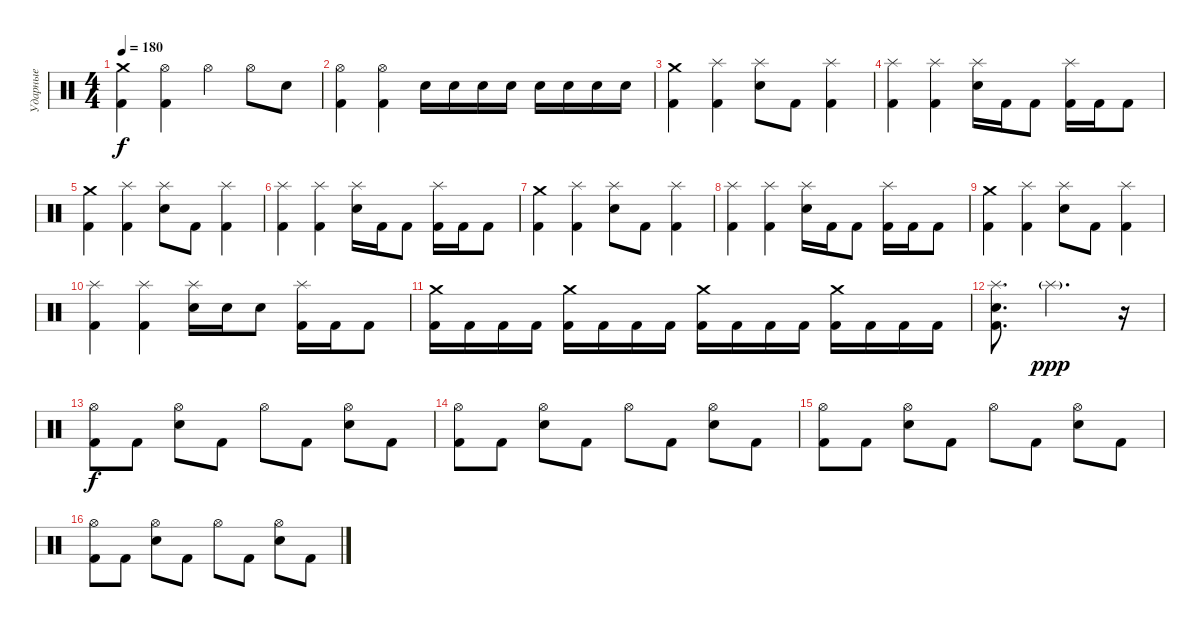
\track ("Ударные" "Ударные") {instrument percussion bank 127}
\staff {score}
\articulation defaults
\ts (4 4)
\tempo 180
\clef neutral
\ks c
("Crash medium (hit)" "Kick (hit) 2").4{dy f} ("Hi-Hat (open)" "Kick (hit) 2").4 "Hi-Hat (open)".4 "Hi-Hat (open)".8 "Snare (hit) 2".8 |
("Hi-Hat (open)" "Kick (hit) 2").4 ("Hi-Hat (open)" "Kick (hit) 2").4 "Snare (hit) 2".16 "Snare (hit) 2".16 "Snare (hit) 2".16 "Snare (hit) 2".16 "Snare (hit) 2".16 "Snare (hit) 2".16 "Snare (hit) 2".16 "Snare (hit) 2".16 |
("Crash medium (hit)" "Kick (hit) 2").4 ("Splash (hit)" "Kick (hit) 2").4 ("Splash (hit)" "Snare (hit) 2").8 "Kick (hit) 2".8 ("Splash (hit)" "Kick (hit) 2").4 |
("Splash (hit)" "Kick (hit) 2").4 ("Splash (hit)" "Kick (hit) 2").4 ("Splash (hit)" "Snare (hit) 2").16 "Kick (hit) 2".16 "Kick (hit) 2".8 ("Splash (hit)" "Kick (hit) 2").16 "Kick (hit) 2".16 "Kick (hit) 2".8 |
("Crash medium (hit)" "Kick (hit) 2").4 ("Splash (hit)" "Kick (hit) 2").4 ("Splash (hit)" "Snare (hit) 2").8 "Kick (hit) 2".8 ("Splash (hit)" "Kick (hit) 2").4 |
("Splash (hit)" "Kick (hit) 2").4 ("Splash (hit)" "Kick (hit) 2").4 ("Splash (hit)" "Snare (hit) 2").16 "Kick (hit) 2".16 "Kick (hit) 2".8 ("Splash (hit)" "Kick (hit) 2").16 "Kick (hit) 2".16 "Kick (hit) 2".8 |
("Crash medium (hit)" "Kick (hit) 2").4 ("Splash (hit)" "Kick (hit) 2").4 ("Splash (hit)" "Snare (hit) 2").8 "Kick (hit) 2".8 ("Splash (hit)" "Kick (hit) 2").4 |
("Splash (hit)" "Kick (hit) 2").4 ("Splash (hit)" "Kick (hit) 2").4 ("Splash (hit)" "Snare (hit) 2").16 "Kick (hit) 2".16 "Kick (hit) 2".8 ("Splash (hit)" "Kick (hit) 2").16 "Kick (hit) 2".16 "Kick (hit) 2".8 |
("Crash medium (hit)" "Kick (hit) 2").4 ("Splash (hit)" "Kick (hit) 2").4 ("Splash (hit)" "Snare (hit) 2").8 "Kick (hit) 2".8 ("Splash (hit)" "Kick (hit) 2").4 |
("Splash (hit)" "Kick (hit) 2").4 ("Splash (hit)" "Kick (hit) 2").4 ("Splash (hit)" "Snare (hit) 2").16 "Snare (hit) 2".16 "Snare (hit) 2".8 ("Splash (hit)" "Kick (hit) 2").16 "Kick (hit) 2".16 "Kick (hit) 2".8 |
("Crash medium (hit)" "Kick (hit) 2").16 "Kick (hit) 2".16 "Kick (hit) 2".16 "Kick (hit) 2".16 ("Crash medium (hit)" "Kick (hit) 2").16 "Kick (hit) 2".16 "Kick (hit) 2".16 "Kick (hit) 2".16 ("Crash medium (hit)" "Kick (hit) 2").16 "Kick (hit) 2".16 "Kick (hit) 2".16 "Kick (hit) 2".16 ("Crash medium (hit)" "Kick (hit) 2").16 "Kick (hit) 2".16 "Kick (hit) 2".16 "Kick (hit) 2".16 |
("Snare (hit) 2" "Splash (hit)" "Kick (hit) 2").8{d} "Splash (hit)"{g}.2{d dy ppp} r.16 |
("Hi-Hat (open)" "Kick (hit) 2").8{dy f} "Kick (hit) 2".8 ("Hi-Hat (open)" "Snare (hit) 2").8 "Kick (hit) 2".8 "Hi-Hat (open)".8 "Kick (hit) 2".8 ("Hi-Hat (open)" "Snare (hit) 2").8 "Kick (hit) 2".8 |
("Hi-Hat (open)" "Kick (hit) 2").8 "Kick (hit) 2".8 ("Hi-Hat (open)" "Snare (hit) 2").8 "Kick (hit) 2".8 "Hi-Hat (open)".8 "Kick (hit) 2".8 ("Hi-Hat (open)" "Snare (hit) 2").8 "Kick (hit) 2".8 |
("Hi-Hat (open)" "Kick (hit) 2").8 "Kick (hit) 2".8 ("Hi-Hat (open)" "Snare (hit) 2").8 "Kick (hit) 2".8 "Hi-Hat (open)".8 "Kick (hit) 2".8 ("Hi-Hat (open)" "Snare (hit) 2").8 "Kick (hit) 2".8 |
("Hi-Hat (open)" "Kick (hit) 2").8 "Kick (hit) 2".8 ("Hi-Hat (open)" "Snare (hit) 2").8 "Kick (hit) 2".8 "Hi-Hat (open)".8 "Kick (hit) 2".8 ("Hi-Hat (open)" "Snare (hit) 2").8 "Kick (hit) 2".8
